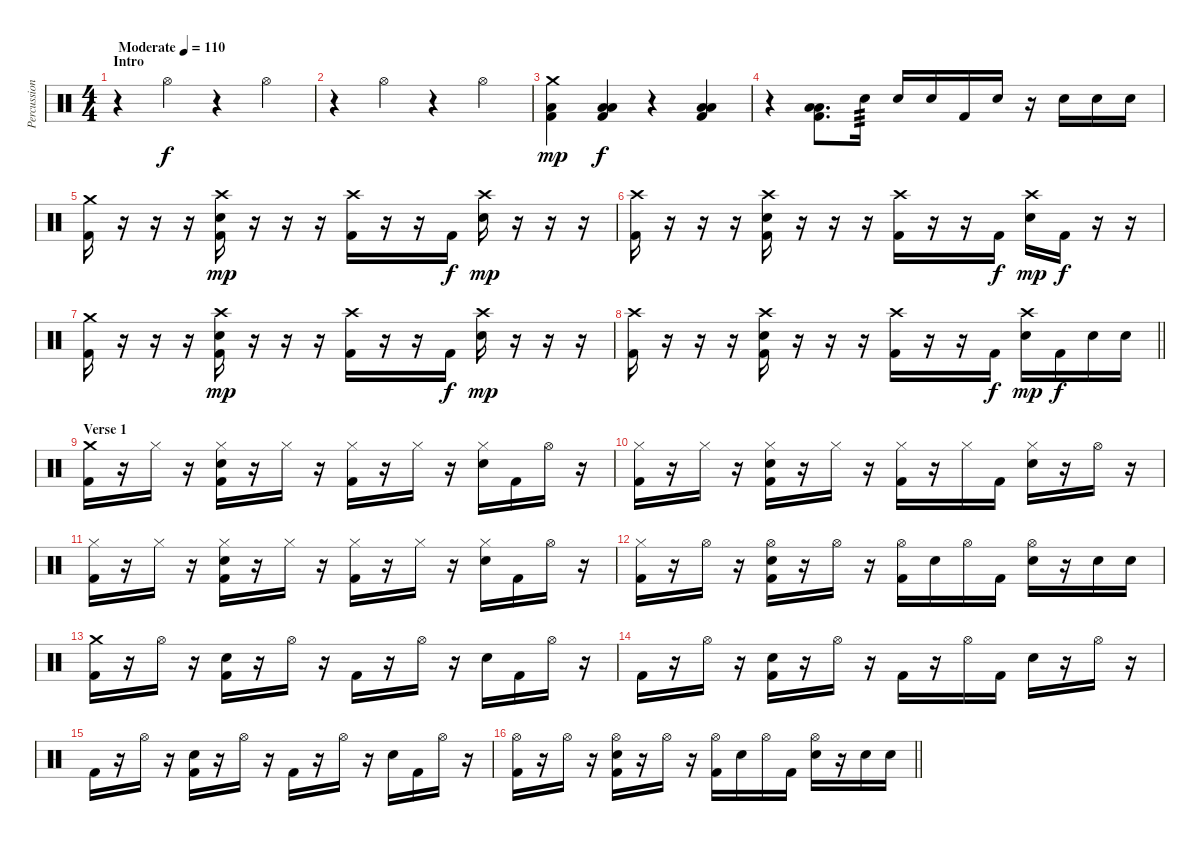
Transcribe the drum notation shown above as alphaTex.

\track ("Percussion" "Percussion") {instrument percussion}
\staff {score}
\articulation defaults
\ts (4 4)
\section ("" "Intro")
\tempo (110 "Moderate")
\clef neutral
\ks c
r.4{dy f} "Hi-Hat (open)".4 r.4 "Hi-Hat (open)".4 |
r.4 "Hi-Hat (open)".4 r.4 "Hi-Hat (open)".4 |
("Crash medium (hit)" "Low Floor Tom (hit)" "Kick (hit) 2").4{dy mp} ("Low Tom (hit)" "Low Floor Tom (hit)" "Kick (hit) 2").4{dy f} r.4 ("Low Tom (hit)" "Low Floor Tom (hit)" "Kick (hit) 2").4 |
r.4 ("Low Tom (hit)" "Low Floor Tom (hit)" "Kick (hit) 2").8{d} "Electric Snare (hit)".16{tp 3} "Electric Snare (hit)".16 "Electric Snare (hit)".16 "Kick (hit) 2".16 "Electric Snare (hit)".16 r.16 "Electric Snare (hit)".16 "Electric Snare (hit)".16 "Electric Snare (hit)".16 |
("Crash medium (hit)" "Kick (hit) 2").16 r.16 r.16 r.16 ("Crash high (hit)" "Electric Snare (hit)" "Kick (hit) 2").16{dy mp} r.16 r.16 r.16 ("Crash high (hit)" "Kick (hit) 2").16 r.16 r.16 "Kick (hit) 2".16{dy f} ("Crash high (hit)" "Electric Snare (hit)").16{dy mp} r.16 r.16 r.16 |
("Crash high (hit)" "Kick (hit) 2").16 r.16 r.16 r.16 ("Crash high (hit)" "Electric Snare (hit)" "Kick (hit) 2").16 r.16 r.16 r.16 ("Crash high (hit)" "Kick (hit) 2").16 r.16 r.16 "Kick (hit) 2".16{dy f} ("Crash high (hit)" "Electric Snare (hit)").16{dy mp} "Kick (hit) 2".16{dy f} r.16 r.16 |
("Crash medium (hit)" "Kick (hit) 2").16 r.16 r.16 r.16 ("Crash high (hit)" "Electric Snare (hit)" "Kick (hit) 2").16{dy mp} r.16 r.16 r.16 ("Crash high (hit)" "Kick (hit) 2").16 r.16 r.16 "Kick (hit) 2".16{dy f} ("Crash high (hit)" "Electric Snare (hit)").16{dy mp} r.16 r.16 r.16 |
\barLineRight lightlight
("Crash high (hit)" "Kick (hit) 2").16 r.16 r.16 r.16 ("Crash high (hit)" "Electric Snare (hit)" "Kick (hit) 2").16 r.16 r.16 r.16 ("Crash high (hit)" "Kick (hit) 2").16 r.16 r.16 "Kick (hit) 2".16{dy f} ("Crash high (hit)" "Electric Snare (hit)").16{dy mp} "Kick (hit) 2".16{dy f} "Electric Snare (hit)".16 "Electric Snare (hit)".16 |
\section ("" "Verse 1")
("Crash medium (hit)" "Kick (hit) 2").16 r.16 "Hi-Hat (closed)".16 r.16 ("Hi-Hat (closed)" "Electric Snare (hit)" "Kick (hit) 2").16 r.16 "Hi-Hat (closed)".16 r.16 ("Hi-Hat (closed)" "Kick (hit) 2").16 r.16 "Hi-Hat (closed)".16 r.16 ("Hi-Hat (closed)" "Electric Snare (hit)").16 "Kick (hit) 2".16 "Hi-Hat (open)".16 r.16 |
("Hi-Hat (closed)" "Kick (hit) 2").16 r.16 "Hi-Hat (closed)".16 r.16 ("Hi-Hat (closed)" "Electric Snare (hit)" "Kick (hit) 2").16 r.16 "Hi-Hat (closed)".16 r.16 ("Hi-Hat (closed)" "Kick (hit) 2").16 r.16 "Hi-Hat (closed)".16 "Kick (hit) 2".16 ("Hi-Hat (closed)" "Electric Snare (hit)").16 r.16 "Hi-Hat (open)".16 r.16 |
("Hi-Hat (closed)" "Kick (hit) 2").16 r.16 "Hi-Hat (closed)".16 r.16 ("Hi-Hat (closed)" "Electric Snare (hit)" "Kick (hit) 2").16 r.16 "Hi-Hat (closed)".16 r.16 ("Hi-Hat (closed)" "Kick (hit) 2").16 r.16 "Hi-Hat (closed)".16 r.16 ("Hi-Hat (closed)" "Electric Snare (hit)").16 "Kick (hit) 2".16 "Hi-Hat (open)".16 r.16 |
("Hi-Hat (closed)" "Kick (hit) 2").16 r.16 "Hi-Hat (open)".16 r.16 ("Hi-Hat (open)" "Electric Snare (hit)" "Kick (hit) 2").16 r.16 "Hi-Hat (open)".16 r.16 ("Hi-Hat (open)" "Kick (hit) 2").16 "Electric Snare (hit)".16 "Hi-Hat (open)".16 "Kick (hit) 2".16 ("Hi-Hat (open)" "Electric Snare (hit)").16 r.16 "Electric Snare (hit)".16 "Electric Snare (hit)".16 |
("Crash medium (hit)" "Kick (hit) 2").16 r.16 "Hi-Hat (open)".16 r.16 ("Electric Snare (hit)" "Kick (hit) 2").16 r.16 "Hi-Hat (open)".16 r.16 "Kick (hit) 2".16 r.16 "Hi-Hat (open)".16 r.16 "Electric Snare (hit)".16 "Kick (hit) 2".16 "Hi-Hat (open)".16 r.16 |
"Kick (hit) 2".16 r.16 "Hi-Hat (open)".16 r.16 ("Electric Snare (hit)" "Kick (hit) 2").16 r.16 "Hi-Hat (open)".16 r.16 "Kick (hit) 2".16 r.16 "Hi-Hat (open)".16 "Kick (hit) 2".16 "Electric Snare (hit)".16 r.16 "Hi-Hat (open)".16 r.16 |
"Kick (hit) 2".16 r.16 "Hi-Hat (open)".16 r.16 ("Electric Snare (hit)" "Kick (hit) 2").16 r.16 "Hi-Hat (open)".16 r.16 "Kick (hit) 2".16 r.16 "Hi-Hat (open)".16 r.16 "Electric Snare (hit)".16 "Kick (hit) 2".16 "Hi-Hat (open)".16 r.16 |
\barLineRight lightlight
("Hi-Hat (open)" "Kick (hit) 2").16 r.16 "Hi-Hat (open)".16 r.16 ("Hi-Hat (open)" "Electric Snare (hit)" "Kick (hit) 2").16 r.16 "Hi-Hat (open)".16 r.16 ("Hi-Hat (open)" "Kick (hit) 2").16 "Electric Snare (hit)".16 "Hi-Hat (open)".16 "Kick (hit) 2".16 ("Hi-Hat (open)" "Electric Snare (hit)").16 r.16 "Electric Snare (hit)".16 "Electric Snare (hit)".16
